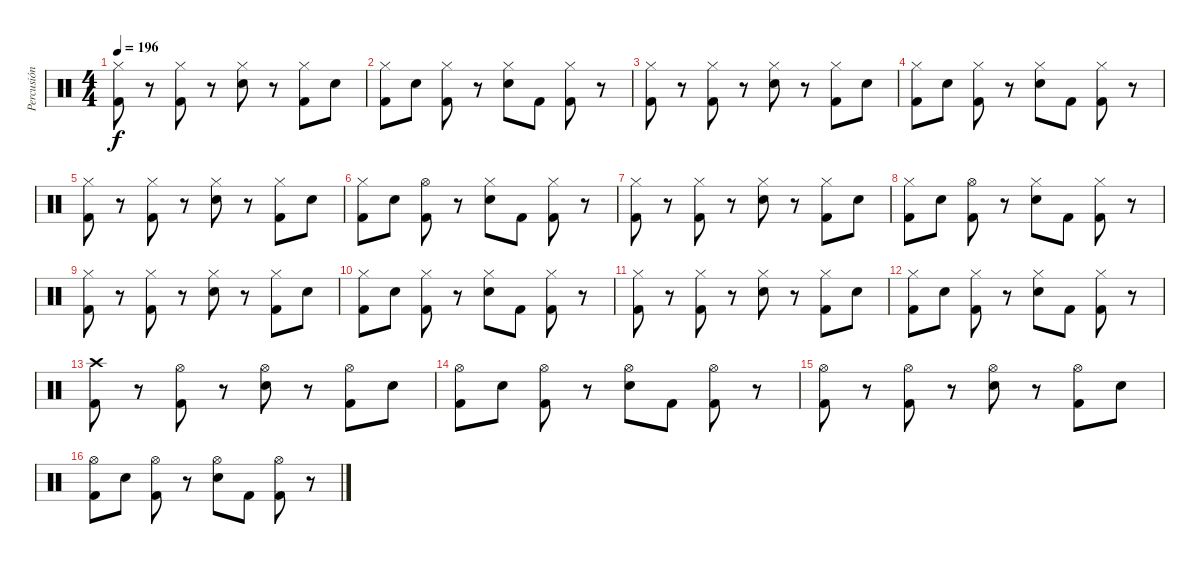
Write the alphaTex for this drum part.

\track ("Percusión" "Percusión") {instrument percussion}
\staff {score}
\articulation defaults
\ts (4 4)
\tempo 196
\clef neutral
\ks c
("Hi-Hat (closed)" "Kick (hit) 2").8{dy f} r.8 ("Hi-Hat (closed)" "Kick (hit) 2").8 r.8 ("Hi-Hat (closed)" "Snare (hit) 2").8 r.8 ("Hi-Hat (closed)" "Kick (hit) 2").8 "Snare (hit) 2".8 |
("Hi-Hat (closed)" "Kick (hit) 2").8 "Snare (hit) 2".8 ("Hi-Hat (closed)" "Kick (hit) 2").8 r.8 ("Hi-Hat (closed)" "Snare (hit) 2").8 "Kick (hit) 2".8 ("Hi-Hat (closed)" "Kick (hit) 2").8 r.8 |
("Hi-Hat (closed)" "Kick (hit) 2").8 r.8 ("Hi-Hat (closed)" "Kick (hit) 2").8 r.8 ("Hi-Hat (closed)" "Snare (hit) 2").8 r.8 ("Hi-Hat (closed)" "Kick (hit) 2").8 "Snare (hit) 2".8 |
("Hi-Hat (closed)" "Kick (hit) 2").8 "Snare (hit) 2".8 ("Hi-Hat (closed)" "Kick (hit) 2").8 r.8 ("Hi-Hat (closed)" "Snare (hit) 2").8 "Kick (hit) 2".8 ("Hi-Hat (closed)" "Kick (hit) 2").8 r.8 |
("Hi-Hat (closed)" "Kick (hit) 2").8 r.8 ("Hi-Hat (closed)" "Kick (hit) 2").8 r.8 ("Hi-Hat (closed)" "Snare (hit) 2").8 r.8 ("Hi-Hat (closed)" "Kick (hit) 2").8 "Snare (hit) 2".8 |
("Hi-Hat (closed)" "Kick (hit) 2").8 "Snare (hit) 2".8 ("Hi-Hat (open)" "Kick (hit) 2").8 r.8 ("Hi-Hat (closed)" "Snare (hit) 2").8 "Kick (hit) 2".8 ("Hi-Hat (closed)" "Kick (hit) 2").8 r.8 |
("Hi-Hat (closed)" "Kick (hit) 2").8 r.8 ("Hi-Hat (closed)" "Kick (hit) 2").8 r.8 ("Hi-Hat (closed)" "Snare (hit) 2").8 r.8 ("Hi-Hat (closed)" "Kick (hit) 2").8 "Snare (hit) 2".8 |
("Hi-Hat (closed)" "Kick (hit) 2").8 "Snare (hit) 2".8 ("Hi-Hat (open)" "Kick (hit) 2").8 r.8 ("Hi-Hat (closed)" "Snare (hit) 2").8 "Kick (hit) 2".8 ("Hi-Hat (closed)" "Kick (hit) 2").8 r.8 |
("Hi-Hat (closed)" "Kick (hit) 2").8 r.8 ("Hi-Hat (closed)" "Kick (hit) 2").8 r.8 ("Hi-Hat (closed)" "Snare (hit) 2").8 r.8 ("Hi-Hat (closed)" "Kick (hit) 2").8 "Snare (hit) 2".8 |
("Hi-Hat (closed)" "Kick (hit) 2").8 "Snare (hit) 2".8 ("Hi-Hat (closed)" "Kick (hit) 2").8 r.8 ("Hi-Hat (closed)" "Snare (hit) 2").8 "Kick (hit) 2".8 ("Hi-Hat (closed)" "Kick (hit) 2").8 r.8 |
("Hi-Hat (closed)" "Kick (hit) 2").8 r.8 ("Hi-Hat (closed)" "Kick (hit) 2").8 r.8 ("Hi-Hat (closed)" "Snare (hit) 2").8 r.8 ("Hi-Hat (closed)" "Kick (hit) 2").8 "Snare (hit) 2".8 |
("Hi-Hat (closed)" "Kick (hit) 2").8 "Snare (hit) 2".8 ("Hi-Hat (closed)" "Kick (hit) 2").8 r.8 ("Hi-Hat (closed)" "Snare (hit) 2").8 "Kick (hit) 2".8 ("Hi-Hat (closed)" "Kick (hit) 2").8 r.8 |
("Crash high (hit)" "Kick (hit) 2").8 r.8 ("Hi-Hat (open)" "Kick (hit) 2").8 r.8 ("Hi-Hat (open)" "Snare (hit) 2").8 r.8 ("Hi-Hat (open)" "Kick (hit) 2").8 "Snare (hit) 2".8 |
("Hi-Hat (open)" "Kick (hit) 2").8 "Snare (hit) 2".8 ("Hi-Hat (open)" "Kick (hit) 2").8 r.8 ("Hi-Hat (open)" "Snare (hit) 2").8 "Kick (hit) 2".8 ("Hi-Hat (open)" "Kick (hit) 2").8 r.8 |
("Hi-Hat (open)" "Kick (hit) 2").8 r.8 ("Hi-Hat (open)" "Kick (hit) 2").8 r.8 ("Hi-Hat (open)" "Snare (hit) 2").8 r.8 ("Hi-Hat (open)" "Kick (hit) 2").8 "Snare (hit) 2".8 |
("Hi-Hat (open)" "Kick (hit) 2").8 "Snare (hit) 2".8 ("Hi-Hat (open)" "Kick (hit) 2").8 r.8 ("Hi-Hat (open)" "Snare (hit) 2").8 "Kick (hit) 2".8 ("Hi-Hat (open)" "Kick (hit) 2").8 r.8
